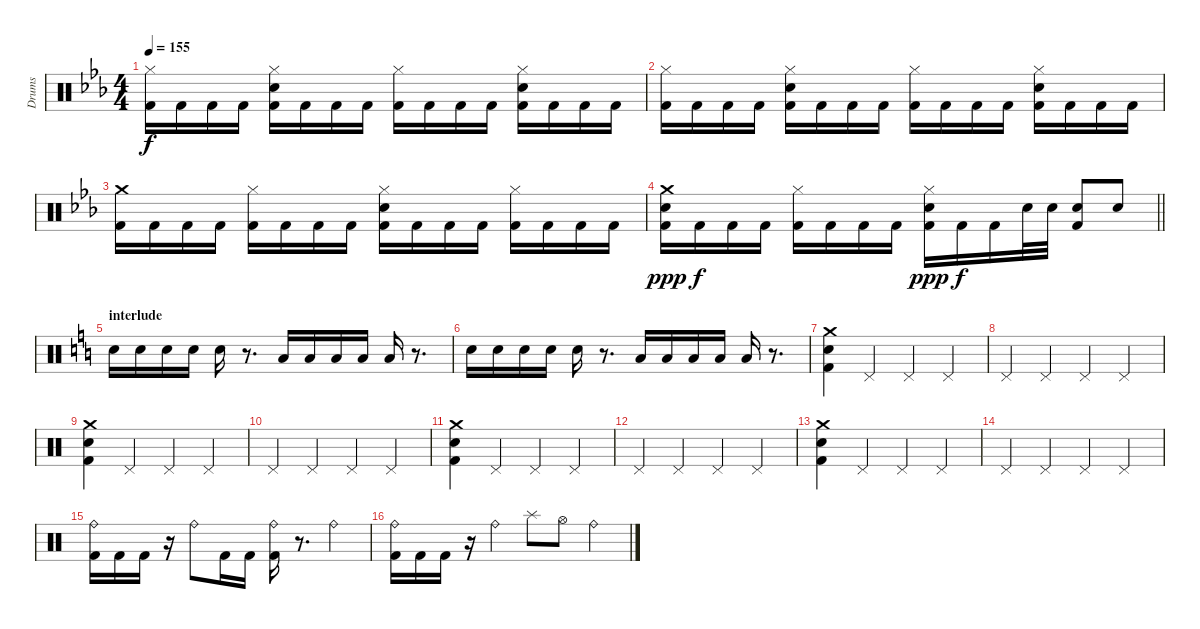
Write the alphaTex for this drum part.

\track ("Drums" "Drums") {instrument percussion}
\staff {score}
\articulation defaults
\ts (4 4)
\tempo 155
\clef neutral
\ks cminor
("Hi-Hat (closed)" "Kick (hit) 2").16{dy f} "Kick (hit) 2".16 "Kick (hit) 2".16 "Kick (hit) 2".16 ("Hi-Hat (closed)" "Electric Snare (hit)" "Kick (hit) 2").16 "Kick (hit) 2".16 "Kick (hit) 2".16 "Kick (hit) 2".16 ("Hi-Hat (closed)" "Kick (hit) 2").16 "Kick (hit) 2".16 "Kick (hit) 2".16 "Kick (hit) 2".16 ("Hi-Hat (closed)" "Electric Snare (hit)" "Kick (hit) 2").16 "Kick (hit) 2".16 "Kick (hit) 2".16 "Kick (hit) 2".16 |
("Hi-Hat (closed)" "Kick (hit) 2").16 "Kick (hit) 2".16 "Kick (hit) 2".16 "Kick (hit) 2".16 ("Hi-Hat (closed)" "Electric Snare (hit)" "Kick (hit) 2").16 "Kick (hit) 2".16 "Kick (hit) 2".16 "Kick (hit) 2".16 ("Hi-Hat (closed)" "Kick (hit) 2").16 "Kick (hit) 2".16 "Kick (hit) 2".16 "Kick (hit) 2".16 ("Hi-Hat (closed)" "Electric Snare (hit)" "Kick (hit) 2").16 "Kick (hit) 2".16 "Kick (hit) 2".16 "Kick (hit) 2".16 |
("Crash medium (hit)" "Kick (hit) 2").16 "Kick (hit) 2".16 "Kick (hit) 2".16 "Kick (hit) 2".16 ("Hi-Hat (closed)" "Kick (hit) 2").16 "Kick (hit) 2".16 "Kick (hit) 2".16 "Kick (hit) 2".16 ("Hi-Hat (closed)" "Kick (hit) 2" "Electric Snare (hit)").16 "Kick (hit) 2".16 "Kick (hit) 2".16 "Kick (hit) 2".16 ("Hi-Hat (closed)" "Kick (hit) 2").16 "Kick (hit) 2".16 "Kick (hit) 2".16 "Kick (hit) 2".16 |
\barLineRight lightlight
("Crash medium (hit)" "Kick (hit) 2" "Electric Snare (hit)").16{dy ppp} "Kick (hit) 2".16{dy f} "Kick (hit) 2".16 "Kick (hit) 2".16 ("Hi-Hat (closed)" "Kick (hit) 2").16 "Kick (hit) 2".16 "Kick (hit) 2".16 "Kick (hit) 2".16 ("Hi-Hat (closed)" "Kick (hit) 2" "Electric Snare (hit)").16{dy ppp} "Kick (hit) 2".16{dy f} "Kick (hit) 2".16 "Electric Snare (hit)".32 "Electric Snare (hit)".32 ("Kick (hit) 2" "Electric Snare (hit)").8 "Electric Snare (hit)".8 |
\section ("" "interlude")
\ks aminor "Electric Snare (hit)".16 "Electric Snare (hit)".16 "Electric Snare (hit)".16 "Electric Snare (hit)".16 "Electric Snare (hit)".16
r.8{d} "Low Tom (hit)".16 "Low Tom (hit)".16 "Low Tom (hit)".16 "Low Tom (hit)".16 "Low Tom (hit)".16 r.8{d} |
"Electric Snare (hit)".16 "Electric Snare (hit)".16 "Electric Snare (hit)".16 "Electric Snare (hit)".16 "Electric Snare (hit)".16 r.8{d} "Low Tom (hit)".16 "Low Tom (hit)".16 "Low Tom (hit)".16 "Low Tom (hit)".16 "Low Tom (hit)".16 r.8{d} |
("Electric Snare (hit)" "Crash medium (hit)" "Kick (hit) 2").4 "Pedal Hi-Hat (hit)".4 "Pedal Hi-Hat (hit)".4 "Pedal Hi-Hat (hit)".4 |
"Pedal Hi-Hat (hit)".4 "Pedal Hi-Hat (hit)".4 "Pedal Hi-Hat (hit)".4 "Pedal Hi-Hat (hit)".4 |
("Electric Snare (hit)" "Crash medium (hit)" "Kick (hit) 2").4 "Pedal Hi-Hat (hit)".4 "Pedal Hi-Hat (hit)".4 "Pedal Hi-Hat (hit)".4 |
"Pedal Hi-Hat (hit)".4 "Pedal Hi-Hat (hit)".4 "Pedal Hi-Hat (hit)".4 "Pedal Hi-Hat (hit)".4 |
("Electric Snare (hit)" "Crash medium (hit)" "Kick (hit) 2").4 "Pedal Hi-Hat (hit)".4 "Pedal Hi-Hat (hit)".4 "Pedal Hi-Hat (hit)".4 |
"Pedal Hi-Hat (hit)".4 "Pedal Hi-Hat (hit)".4 "Pedal Hi-Hat (hit)".4 "Pedal Hi-Hat (hit)".4 |
("Electric Snare (hit)" "Crash medium (hit)" "Kick (hit) 2").4 "Pedal Hi-Hat (hit)".4 "Pedal Hi-Hat (hit)".4 "Pedal Hi-Hat (hit)".4 |
"Pedal Hi-Hat (hit)".4 "Pedal Hi-Hat (hit)".4 "Pedal Hi-Hat (hit)".4 "Pedal Hi-Hat (hit)".4 |
("Kick (hit) 2" "Ride (bell)").16 "Kick (hit) 2".16 "Kick (hit) 2".16 r.16 "Ride (bell)".8 "Kick (hit) 2".16 "Kick (hit) 2".16 ("Kick (hit) 2" "Ride (bell)").16 r.8{d} "Ride (bell)".4 |
("Kick (hit) 2" "Ride (bell)").16 "Kick (hit) 2".16 "Kick (hit) 2".16 r.16 "Ride (bell)".4 "Splash (hit)".8 "Hi-Hat (open)".8 "Ride (bell)".4
